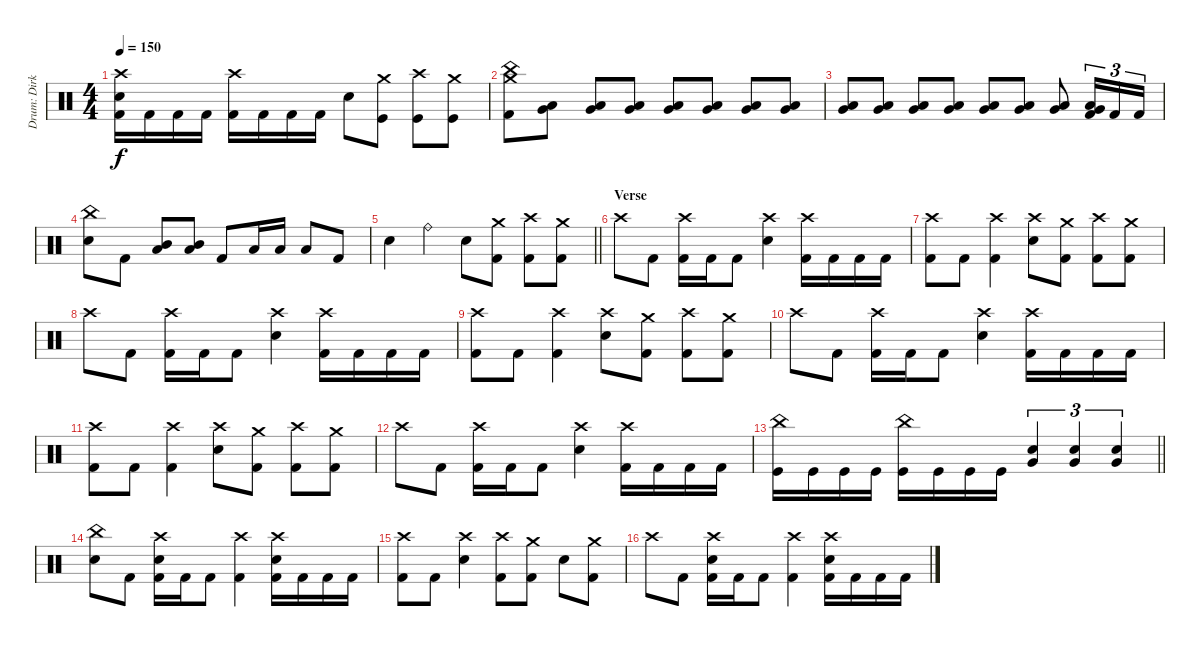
\track ("Drum: Dirk" "Drum: Dirk") {instrument percussion}
\staff {score}
\articulation defaults
\ts (4 4)
\tempo 150
\clef neutral
\ks c
("Crash high (hit)" "Electric Snare (hit)" "Kick (hit) 2").16{dy f} "Kick (hit) 2".16 "Kick (hit) 2".16 "Kick (hit) 2".16 ("Crash high (hit)" "Kick (hit) 2").16 "Kick (hit) 2".16 "Kick (hit) 2".16 "Kick (hit) 2".16 "Electric Snare (hit)".8 ("Crash medium (hit)" "Kick (hit)").8 ("Crash high (hit)" "Kick (hit)").8 ("Crash medium (hit)" "Kick (hit)").8 |
("China (hit)" "Crash medium (hit)" "Kick (hit) 2").8 ("Low Tom (hit)" "Very Low Tom (hit)").8 ("Low Tom (hit)" "Very Low Tom (hit)").8 ("Low Tom (hit)" "Very Low Tom (hit)").8 ("Low Tom (hit)" "Very Low Tom (hit)").8 ("Low Tom (hit)" "Very Low Tom (hit)").8 ("Low Tom (hit)" "Very Low Tom (hit)").8 ("Low Tom (hit)" "Very Low Tom (hit)").8 |
("Low Tom (hit)" "Very Low Tom (hit)").8 ("Low Tom (hit)" "Very Low Tom (hit)").8 ("Low Tom (hit)" "Very Low Tom (hit)").8 ("Low Tom (hit)" "Very Low Tom (hit)").8 ("Low Tom (hit)" "Very Low Tom (hit)").8 ("Low Tom (hit)" "Very Low Tom (hit)").8 ("Low Tom (hit)" "Very Low Tom (hit)").8 ("Low Tom (hit)" "Very Low Tom (hit)" "Kick (hit) 2").16{tu (3 2)} "Kick (hit) 2".16{tu (3 2)} "Kick (hit) 2".16{tu (3 2)} |
("China (hit)" "Electric Snare (hit)").8 "Kick (hit) 2".8 ("Mid Tom (hit)" "Low Tom (hit)").8 ("Mid Tom (hit)" "Low Tom (hit)").8 "Kick (hit) 2".8 "Low Tom (hit)".16 "Low Tom (hit)".16 "Low Tom (hit)".8 "Kick (hit) 2".8 |
\barLineRight lightlight "Electric Snare (hit)".4 "Ride (bell)".4 "Electric Snare (hit)".8
("Crash medium (hit)" "Kick (hit) 2").8 ("Crash high (hit)" "Kick (hit) 2").8 ("Crash medium (hit)" "Kick (hit) 2").8 |
\section ("" "Verse")
"Crash high (hit)".8 "Kick (hit) 2".8 ("Crash high (hit)" "Kick (hit) 2").16 "Kick (hit) 2".16 "Kick (hit) 2".8 ("Crash high (hit)" "Electric Snare (hit)").4 ("Crash high (hit)" "Kick (hit) 2").16 "Kick (hit) 2".16 "Kick (hit) 2".16 "Kick (hit) 2".16 |
("Crash high (hit)" "Kick (hit) 2").8 "Kick (hit) 2".8 ("Crash high (hit)" "Kick (hit) 2").4 ("Crash high (hit)" "Electric Snare (hit)").8 ("Crash medium (hit)" "Kick (hit) 2").8 ("Crash high (hit)" "Kick (hit) 2").8 ("Crash medium (hit)" "Kick (hit) 2").8 |
"Crash high (hit)".8 "Kick (hit) 2".8 ("Crash high (hit)" "Kick (hit) 2").16 "Kick (hit) 2".16 "Kick (hit) 2".8 ("Crash high (hit)" "Electric Snare (hit)").4 ("Crash high (hit)" "Kick (hit) 2").16 "Kick (hit) 2".16 "Kick (hit) 2".16 "Kick (hit) 2".16 |
("Crash high (hit)" "Kick (hit) 2").8 "Kick (hit) 2".8 ("Crash high (hit)" "Kick (hit) 2").4 ("Crash high (hit)" "Electric Snare (hit)").8 ("Crash medium (hit)" "Kick (hit) 2").8 ("Crash high (hit)" "Kick (hit) 2").8 ("Crash medium (hit)" "Kick (hit) 2").8 |
"Crash high (hit)".8 "Kick (hit) 2".8 ("Crash high (hit)" "Kick (hit) 2").16 "Kick (hit) 2".16 "Kick (hit) 2".8 ("Crash high (hit)" "Electric Snare (hit)").4 ("Crash high (hit)" "Kick (hit) 2").16 "Kick (hit) 2".16 "Kick (hit) 2".16 "Kick (hit) 2".16 |
("Crash high (hit)" "Kick (hit) 2").8 "Kick (hit) 2".8 ("Crash high (hit)" "Kick (hit) 2").4 ("Crash high (hit)" "Electric Snare (hit)").8 ("Crash medium (hit)" "Kick (hit) 2").8 ("Crash high (hit)" "Kick (hit) 2").8 ("Crash medium (hit)" "Kick (hit) 2").8 |
"Crash high (hit)".8 "Kick (hit) 2".8 ("Crash high (hit)" "Kick (hit) 2").16 "Kick (hit) 2".16 "Kick (hit) 2".8 ("Crash high (hit)" "Electric Snare (hit)").4 ("Crash high (hit)" "Kick (hit) 2").16 "Kick (hit) 2".16 "Kick (hit) 2".16 "Kick (hit) 2".16 |
\barLineRight lightlight
("China (hit)" "Kick (hit)").16 "Kick (hit)".16 "Kick (hit)".16 "Kick (hit)".16 ("China (hit)" "Kick (hit)").16 "Kick (hit)".16 "Kick (hit)".16 "Kick (hit)".16 ("Electric Snare (hit)" "Very Low Tom (hit)").4{tu (3 2)} ("Electric Snare (hit)" "Very Low Tom (hit)").4{tu (3 2)} ("Electric Snare (hit)" "Very Low Tom (hit)").4{tu (3 2)} |
\section ("" "")
("China (hit)" "Electric Snare (hit)").8 "Kick (hit) 2".8 ("Crash high (hit)" "Electric Snare (hit)" "Kick (hit) 2").16 "Kick (hit) 2".16 "Kick (hit) 2".8 ("Crash high (hit)" "Kick (hit) 2").4 ("Crash high (hit)" "Electric Snare (hit)" "Kick (hit) 2").16 "Kick (hit) 2".16 "Kick (hit) 2".16 "Kick (hit) 2".16 |
("Crash high (hit)" "Kick (hit) 2").8 "Kick (hit) 2".8 ("Crash high (hit)" "Electric Snare (hit)").4 ("Crash high (hit)" "Kick (hit) 2").8 ("Crash medium (hit)" "Kick (hit) 2").8 "Electric Snare (hit)".8 ("Crash medium (hit)" "Kick (hit) 2").8 |
"Crash high (hit)".8 "Kick (hit) 2".8 ("Crash high (hit)" "Electric Snare (hit)" "Kick (hit) 2").16 "Kick (hit) 2".16 "Kick (hit) 2".8 ("Crash high (hit)" "Kick (hit) 2").4 ("Crash high (hit)" "Electric Snare (hit)" "Kick (hit) 2").16 "Kick (hit) 2".16 "Kick (hit) 2".16 "Kick (hit) 2".16
